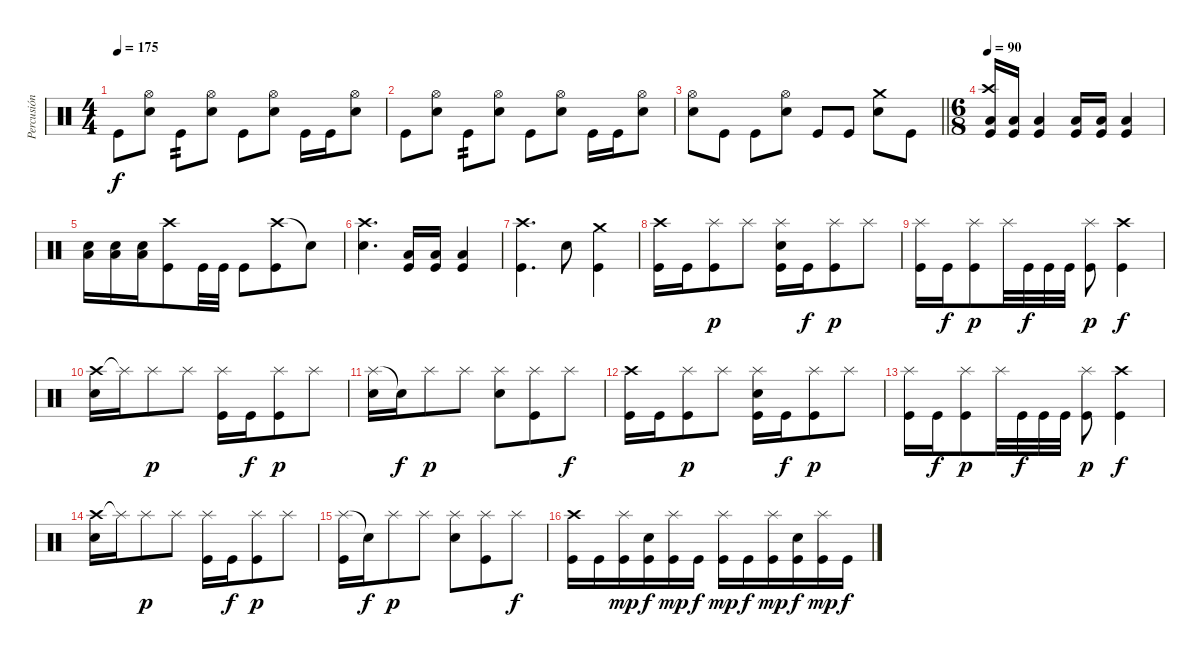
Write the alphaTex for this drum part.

\track ("Percusión" "Percusión") {instrument percussion}
\staff {score}
\articulation defaults
\ts (4 4)
\tempo 175
\clef neutral
\ks c "Kick (hit)".8{dy f}
("Hi-Hat (open)" "Snare (hit) 2").8 "Kick (hit)".8{tp 2} ("Hi-Hat (open)" "Snare (hit) 2").8 "Kick (hit)".8 ("Hi-Hat (open)" "Snare (hit) 2").8 "Kick (hit)".16 "Kick (hit)".16 ("Hi-Hat (open)" "Snare (hit) 2").8 |
"Kick (hit)".8 ("Hi-Hat (open)" "Snare (hit) 2").8 "Kick (hit)".8{tp 2} ("Hi-Hat (open)" "Snare (hit) 2").8 "Kick (hit)".8 ("Hi-Hat (open)" "Snare (hit) 2").8 "Kick (hit)".16 "Kick (hit)".16 ("Hi-Hat (open)" "Snare (hit) 2").8 |
\barLineRight lightlight
("Hi-Hat (open)" "Snare (hit) 2").8 "Kick (hit)".8 "Kick (hit)".8 ("Hi-Hat (open)" "Snare (hit) 2").8 "Kick (hit)".8 "Kick (hit)".8 ("Crash medium (hit)" "Snare (hit) 2").8 "Kick (hit)".8 |
\ts (6 8)
\tempo 90
("Crash high (hit)" "Low Tom (hit)" "Kick (hit)").16 ("Low Tom (hit)" "Kick (hit)").16 ("Low Tom (hit)" "Kick (hit)").4 ("Low Tom (hit)" "Kick (hit)").16 ("Low Tom (hit)" "Kick (hit)").16 ("Low Tom (hit)" "Kick (hit)").4 |
("Snare (hit) 2" "Low Tom (hit)").16 ("Snare (hit) 2" "Low Tom (hit)").16 ("Snare (hit) 2" "Low Tom (hit)").16 ("Crash high (hit)" "Kick (hit)").8 "Kick (hit)".32 "Kick (hit)".32 "Kick (hit)".8 ("Crash high (hit)" "Kick (hit)").8 "Snare (hit)"{t}.8 |
("Crash high (hit)" "Snare (hit) 2").4{d} ("Low Tom (hit)" "Kick (hit)").16 ("Low Tom (hit)" "Kick (hit)").16 ("Low Tom (hit)" "Kick (hit)").4 |
("Crash high (hit)" "Kick (hit)").4{d} "Snare (hit) 2".8 ("Crash medium (hit)" "Kick (hit)").4 |
("Crash high (hit)" "Kick (hit)").16 "Kick (hit)".16 ("Splash (hit)" "Kick (hit)").8{dy p} "Splash (hit)".8 ("Splash (hit)" "Snare (hit) 2" "Kick (hit)").16 "Kick (hit)".16{dy f} ("Splash (hit)" "Kick (hit)").8{dy p} "Splash (hit)".8 |
("Splash (hit)" "Kick (hit)").16 "Kick (hit)".16{dy f} ("Splash (hit)" "Kick (hit)").8{dy p} "Splash (hit)".32 "Kick (hit)".32{dy f} "Kick (hit)".32 "Kick (hit)".32 ("Splash (hit)" "Kick (hit)").8{dy p} ("Crash high (hit)" "Kick (hit)").4{dy f} |
("Crash high (hit)" "Snare (hit) 2").16 "Splash (hit)"{t}.16 "Splash (hit)".8{dy p} "Splash (hit)".8 ("Splash (hit)" "Kick (hit)").16 "Kick (hit)".16{dy f} ("Splash (hit)" "Kick (hit)").8{dy p} "Splash (hit)".8 |
("Splash (hit)" "Snare (hit) 2").16 "Snare (hit)"{t}.16{dy f} "Splash (hit)".8{dy p} "Splash (hit)".8 ("Splash (hit)" "Snare (hit) 2").8 ("Splash (hit)" "Kick (hit)").8 "Splash (hit)".8{dy f} |
("Crash high (hit)" "Kick (hit)").16 "Kick (hit)".16 ("Splash (hit)" "Kick (hit)").8{dy p} "Splash (hit)".8 ("Splash (hit)" "Snare (hit) 2" "Kick (hit)").16 "Kick (hit)".16{dy f} ("Splash (hit)" "Kick (hit)").8{dy p} "Splash (hit)".8 |
("Splash (hit)" "Kick (hit)").16 "Kick (hit)".16{dy f} ("Splash (hit)" "Kick (hit)").8{dy p} "Splash (hit)".32 "Kick (hit)".32{dy f} "Kick (hit)".32 "Kick (hit)".32 ("Splash (hit)" "Kick (hit)").8{dy p} ("Crash high (hit)" "Kick (hit)").4{dy f} |
("Crash high (hit)" "Snare (hit) 2").16 "Splash (hit)"{t}.16 "Splash (hit)".8{dy p} "Splash (hit)".8 ("Splash (hit)" "Kick (hit)").16 "Kick (hit)".16{dy f} ("Splash (hit)" "Kick (hit)").8{dy p} "Splash (hit)".8 |
("Splash (hit)" "Kick (hit)").16 "Snare (hit)"{t}.16{dy f} "Splash (hit)".8{dy p} "Splash (hit)".8 ("Splash (hit)" "Snare (hit) 2").8 ("Splash (hit)" "Kick (hit)").8 "Splash (hit)".8{dy f} |
("Crash high (hit)" "Kick (hit)").16 "Kick (hit)".16 ("Splash (hit)" "Kick (hit)").16{dy mp} ("Snare (hit) 2" "Kick (hit)").16{dy f} ("Splash (hit)" "Kick (hit)").16{dy mp} "Kick (hit)".16{dy f} ("Splash (hit)" "Kick (hit)").16{dy mp} "Kick (hit)".16{dy f} ("Splash (hit)" "Kick (hit)").16{dy mp} ("Snare (hit) 2" "Kick (hit)").16{dy f} ("Splash (hit)" "Kick (hit)").16{dy mp} "Kick (hit)".16{dy f}
